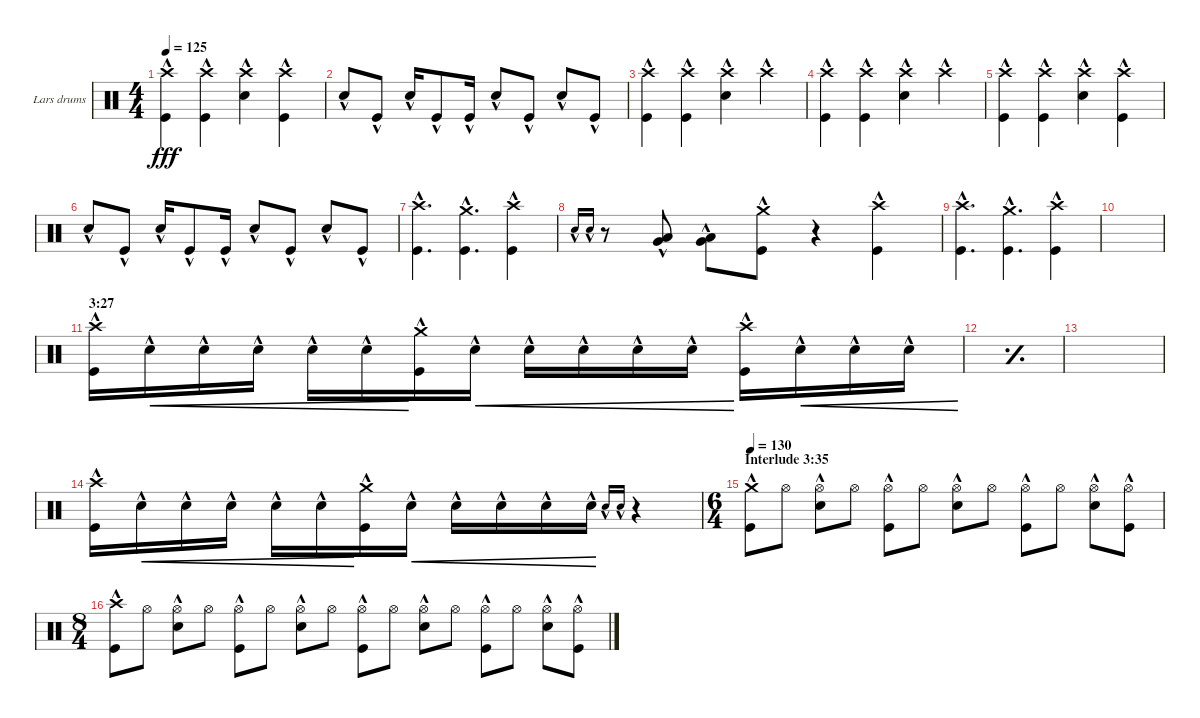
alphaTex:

\defaultSystemsLayout 4
\bracketExtendMode groupsimilarinstruments
\firstSystemTrackNameOrientation horizontal
\otherSystemsTrackNameOrientation horizontal
\track ("Lars drums" "Lars drums") {instrument percussion}
\staff {score}
\articulation defaults
\ts (4 4)
\tempo 125
\clef neutral
\ks c
("Crash high (hit)"{hac} "Kick (hit)"{hac}).4{dy fff} ("Crash high (hit)"{hac} "Kick (hit)"{hac}).4 ("Crash high (hit)"{hac} "Snare (hit) 2"{hac}).4 ("Crash high (hit)"{hac} "Kick (hit)"{hac}).4 |
"Snare (hit) 2"{hac}.8 "Kick (hit)"{hac}.8 "Snare (hit) 2"{hac}.16 "Kick (hit)"{hac}.8 "Kick (hit)"{hac}.16 "Snare (hit) 2"{hac}.8 "Kick (hit)"{hac}.8 "Snare (hit) 2"{hac}.8 "Kick (hit)"{hac}.8 |
("Crash high (hit)"{hac} "Kick (hit)"{hac}).4 ("Crash high (hit)"{hac} "Kick (hit)"{hac}).4 ("Crash high (hit)"{hac} "Snare (hit) 2"{hac}).4 "Crash high (hit)"{hac}.4 |
("Crash high (hit)"{hac} "Kick (hit)"{hac}).4 ("Crash high (hit)"{hac} "Kick (hit)"{hac}).4 ("Crash high (hit)"{hac} "Snare (hit) 2"{hac}).4 "Crash high (hit)"{hac}.4 |
("Crash high (hit)"{hac} "Kick (hit)"{hac}).4 ("Crash high (hit)"{hac} "Kick (hit)"{hac}).4 ("Crash high (hit)"{hac} "Snare (hit) 2"{hac}).4 ("Crash high (hit)"{hac} "Kick (hit)"{hac}).4 |
"Snare (hit) 2"{hac}.8 "Kick (hit)"{hac}.8 "Snare (hit) 2"{hac}.16 "Kick (hit)"{hac}.8 "Kick (hit)"{hac}.16 "Snare (hit) 2"{hac}.8 "Kick (hit)"{hac}.8 "Snare (hit) 2"{hac}.8 "Kick (hit)"{hac}.8 |
("Crash high (hit)"{hac} "Kick (hit)"{hac}).4{d} ("Crash medium (hit)"{hac} "Kick (hit)"{hac}).4{d} ("Crash high (hit)"{hac} "Kick (hit)"{hac}).4 |
"Snare (hit) 2"{hac}.16{gr onbeat} "Snare (hit) 2"{hac}.16{gr onbeat} r.8 ("Very Low Tom (hit)"{hac} "Low Tom (hit)"{hac}).8 ("Low Tom (hit)"{hac} "Very Low Tom (hit)"{hac}).8 ("Crash medium (hit)"{hac} "Kick (hit)"{hac}).8 r.4 ("Crash high (hit)"{hac} "Kick (hit)"{hac}).4 |
("Crash high (hit)"{hac} "Kick (hit)"{hac}).4{d} ("Crash medium (hit)"{hac} "Kick (hit)"{hac}).4{d} ("Crash high (hit)"{hac} "Kick (hit)"{hac}).4 |
|
\section ("" "3:27")
("Crash high (hit)"{hac} "Kick (hit)"{hac}).16 "Snare (hit) 2"{hac}.16{cre} "Snare (hit) 2"{hac}.16{cre} "Snare (hit) 2"{hac}.16{cre} "Snare (hit) 2"{hac}.16{cre} "Snare (hit) 2"{hac}.16{cre} ("Crash medium (hit)"{hac} "Kick (hit)"{hac}).16 "Snare (hit) 2"{hac}.16{cre} "Snare (hit) 2"{hac}.16{cre} "Snare (hit) 2"{hac}.16{cre} "Snare (hit) 2"{hac}.16{cre} "Snare (hit) 2"{hac}.16{cre} ("Crash high (hit)"{hac} "Kick (hit)"{hac}).16 "Snare (hit) 2"{hac}.16{cre} "Snare (hit) 2"{hac}.16{cre} "Snare (hit) 2"{hac}.16{cre} |
\simile simple
|
|
\simile none
("Crash high (hit)"{hac} "Kick (hit)"{hac}).16 "Snare (hit) 2"{hac}.16{cre} "Snare (hit) 2"{hac}.16{cre} "Snare (hit) 2"{hac}.16{cre} "Snare (hit) 2"{hac}.16{cre} "Snare (hit) 2"{hac}.16{cre} ("Crash medium (hit)"{hac} "Kick (hit)"{hac}).16 "Snare (hit) 2"{hac}.16{cre} "Snare (hit) 2"{hac}.16{cre} "Snare (hit) 2"{hac}.16{cre} "Snare (hit) 2"{hac}.16{cre} "Snare (hit) 2"{hac}.16{cre} "Snare (hit) 2"{hac}.16{gr onbeat} "Snare (hit) 2"{hac}.16{gr onbeat} r.4 |
\ts (6 4)
\section ("" "Interlude 3:35")
\tempo 130
("Crash medium (hit)"{hac} "Kick (hit)"{hac}).8 "Hi-Hat (open)".8 ("Hi-Hat (open)" "Snare (hit) 2"{hac}).8 "Hi-Hat (open)".8 ("Hi-Hat (open)" "Kick (hit)"{hac}).8 "Hi-Hat (open)".8 ("Hi-Hat (open)" "Snare (hit) 2"{hac}).8 "Hi-Hat (open)".8 ("Hi-Hat (open)" "Kick (hit)"{hac}).8 "Hi-Hat (open)".8 ("Hi-Hat (open)" "Snare (hit) 2"{hac}).8 ("Hi-Hat (open)" "Kick (hit)"{hac}).8 |
\ts (8 4)
("Crash high (hit)"{hac} "Kick (hit)"{hac}).8 "Hi-Hat (open)".8 ("Hi-Hat (open)" "Snare (hit) 2"{hac}).8 "Hi-Hat (open)".8 ("Hi-Hat (open)" "Kick (hit)"{hac}).8 "Hi-Hat (open)".8 ("Hi-Hat (open)" "Snare (hit) 2"{hac}).8 "Hi-Hat (open)".8 ("Hi-Hat (open)" "Kick (hit)"{hac}).8 "Hi-Hat (open)".8 ("Hi-Hat (open)" "Snare (hit) 2"{hac}).8 "Hi-Hat (open)".8 ("Hi-Hat (open)" "Kick (hit)"{hac}).8 "Hi-Hat (open)".8 ("Hi-Hat (open)" "Snare (hit) 2"{hac}).8 ("Hi-Hat (open)" "Kick (hit)"{hac}).8
